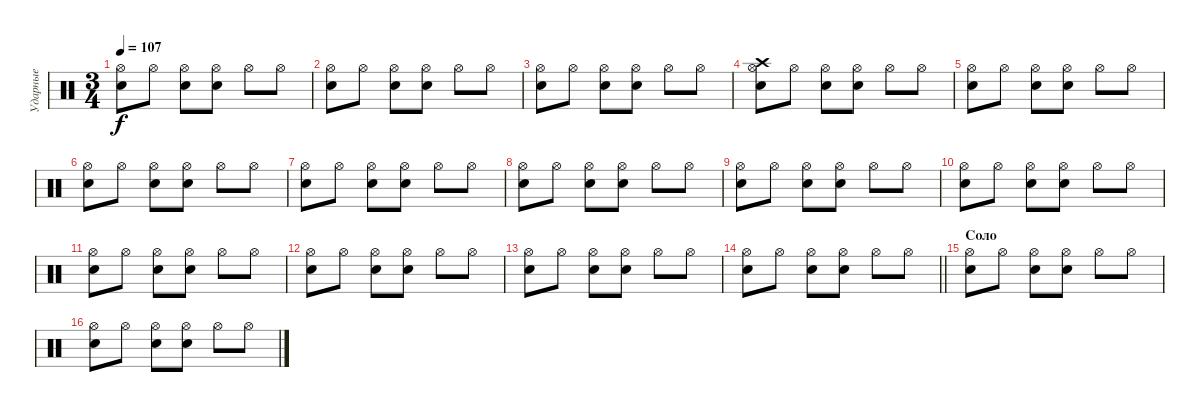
\track ("Ударные" "Ударные") {instrument percussion}
\staff {score}
\articulation defaults
\ts (3 4)
\tempo 107
\clef neutral
\ks c
("Hi-Hat (open)" "Snare (hit) 2").8{dy f} "Hi-Hat (open)".8 ("Hi-Hat (open)" "Snare (hit) 2").8 ("Hi-Hat (open)" "Snare (hit) 2").8 "Hi-Hat (open)".8 "Hi-Hat (open)".8 |
("Hi-Hat (open)" "Snare (hit) 2").8 "Hi-Hat (open)".8 ("Hi-Hat (open)" "Snare (hit) 2").8 ("Hi-Hat (open)" "Snare (hit) 2").8 "Hi-Hat (open)".8 "Hi-Hat (open)".8 |
("Hi-Hat (open)" "Snare (hit) 2").8 "Hi-Hat (open)".8 ("Hi-Hat (open)" "Snare (hit) 2").8 ("Hi-Hat (open)" "Snare (hit) 2").8 "Hi-Hat (open)".8 "Hi-Hat (open)".8 |
("Hi-Hat (open)" "Crash high (hit)" "Snare (hit) 2").8 "Hi-Hat (open)".8 ("Hi-Hat (open)" "Snare (hit) 2").8 ("Hi-Hat (open)" "Snare (hit) 2").8 "Hi-Hat (open)".8 "Hi-Hat (open)".8 |
("Hi-Hat (open)" "Snare (hit) 2").8 "Hi-Hat (open)".8 ("Hi-Hat (open)" "Snare (hit) 2").8 ("Hi-Hat (open)" "Snare (hit) 2").8 "Hi-Hat (open)".8 "Hi-Hat (open)".8 |
("Hi-Hat (open)" "Snare (hit) 2").8 "Hi-Hat (open)".8 ("Hi-Hat (open)" "Snare (hit) 2").8 ("Hi-Hat (open)" "Snare (hit) 2").8 "Hi-Hat (open)".8 "Hi-Hat (open)".8 |
("Hi-Hat (open)" "Snare (hit) 2").8 "Hi-Hat (open)".8 ("Hi-Hat (open)" "Snare (hit) 2").8 ("Hi-Hat (open)" "Snare (hit) 2").8 "Hi-Hat (open)".8 "Hi-Hat (open)".8 |
("Hi-Hat (open)" "Snare (hit) 2").8 "Hi-Hat (open)".8 ("Hi-Hat (open)" "Snare (hit) 2").8 ("Hi-Hat (open)" "Snare (hit) 2").8 "Hi-Hat (open)".8 "Hi-Hat (open)".8 |
("Hi-Hat (open)" "Snare (hit) 2").8 "Hi-Hat (open)".8 ("Hi-Hat (open)" "Snare (hit) 2").8 ("Hi-Hat (open)" "Snare (hit) 2").8 "Hi-Hat (open)".8 "Hi-Hat (open)".8 |
("Hi-Hat (open)" "Snare (hit) 2").8 "Hi-Hat (open)".8 ("Hi-Hat (open)" "Snare (hit) 2").8 ("Hi-Hat (open)" "Snare (hit) 2").8 "Hi-Hat (open)".8 "Hi-Hat (open)".8 |
("Hi-Hat (open)" "Snare (hit) 2").8 "Hi-Hat (open)".8 ("Hi-Hat (open)" "Snare (hit) 2").8 ("Hi-Hat (open)" "Snare (hit) 2").8 "Hi-Hat (open)".8 "Hi-Hat (open)".8 |
("Hi-Hat (open)" "Snare (hit) 2").8 "Hi-Hat (open)".8 ("Hi-Hat (open)" "Snare (hit) 2").8 ("Hi-Hat (open)" "Snare (hit) 2").8 "Hi-Hat (open)".8 "Hi-Hat (open)".8 |
("Hi-Hat (open)" "Snare (hit) 2").8 "Hi-Hat (open)".8 ("Hi-Hat (open)" "Snare (hit) 2").8 ("Hi-Hat (open)" "Snare (hit) 2").8 "Hi-Hat (open)".8 "Hi-Hat (open)".8 |
\barLineRight lightlight
("Hi-Hat (open)" "Snare (hit) 2").8 "Hi-Hat (open)".8 ("Hi-Hat (open)" "Snare (hit) 2").8 ("Hi-Hat (open)" "Snare (hit) 2").8 "Hi-Hat (open)".8 "Hi-Hat (open)".8 |
\section ("" "Соло")
("Hi-Hat (open)" "Snare (hit) 2").8 "Hi-Hat (open)".8 ("Hi-Hat (open)" "Snare (hit) 2").8 ("Hi-Hat (open)" "Snare (hit) 2").8 "Hi-Hat (open)".8 "Hi-Hat (open)".8 |
("Hi-Hat (open)" "Snare (hit) 2").8 "Hi-Hat (open)".8 ("Hi-Hat (open)" "Snare (hit) 2").8 ("Hi-Hat (open)" "Snare (hit) 2").8 "Hi-Hat (open)".8 "Hi-Hat (open)".8
